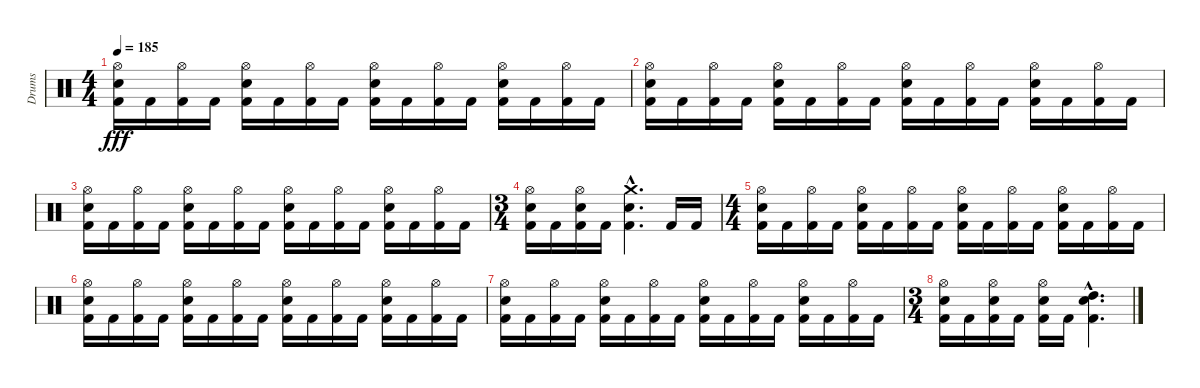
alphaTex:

\track ("Drums" "Drums") {instrument percussion}
\staff {score}
\articulation defaults
\ts (4 4)
\tempo 185
\clef neutral
\ks c
("Hi-Hat (open)" "Electric Snare (hit)" "Kick (hit) 2").16{dy fff} "Kick (hit) 2".16 ("Hi-Hat (open)" "Kick (hit) 2").16 "Kick (hit) 2".16 ("Hi-Hat (open)" "Electric Snare (hit)" "Kick (hit) 2").16 "Kick (hit) 2".16 ("Hi-Hat (open)" "Kick (hit) 2").16 "Kick (hit) 2".16 ("Hi-Hat (open)" "Electric Snare (hit)" "Kick (hit) 2").16 "Kick (hit) 2".16 ("Hi-Hat (open)" "Kick (hit) 2").16 "Kick (hit) 2".16 ("Hi-Hat (open)" "Electric Snare (hit)" "Kick (hit) 2").16 "Kick (hit) 2".16 ("Hi-Hat (open)" "Kick (hit) 2").16 "Kick (hit) 2".16 |
("Hi-Hat (open)" "Electric Snare (hit)" "Kick (hit) 2").16 "Kick (hit) 2".16 ("Hi-Hat (open)" "Kick (hit) 2").16 "Kick (hit) 2".16 ("Hi-Hat (open)" "Electric Snare (hit)" "Kick (hit) 2").16 "Kick (hit) 2".16 ("Hi-Hat (open)" "Kick (hit) 2").16 "Kick (hit) 2".16 ("Hi-Hat (open)" "Electric Snare (hit)" "Kick (hit) 2").16 "Kick (hit) 2".16 ("Hi-Hat (open)" "Kick (hit) 2").16 "Kick (hit) 2".16 ("Hi-Hat (open)" "Electric Snare (hit)" "Kick (hit) 2").16 "Kick (hit) 2".16 ("Hi-Hat (open)" "Kick (hit) 2").16 "Kick (hit) 2".16 |
("Hi-Hat (open)" "Electric Snare (hit)" "Kick (hit) 2").16 "Kick (hit) 2".16 ("Hi-Hat (open)" "Kick (hit) 2").16 "Kick (hit) 2".16 ("Hi-Hat (open)" "Electric Snare (hit)" "Kick (hit) 2").16 "Kick (hit) 2".16 ("Hi-Hat (open)" "Kick (hit) 2").16 "Kick (hit) 2".16 ("Hi-Hat (open)" "Electric Snare (hit)" "Kick (hit) 2").16 "Kick (hit) 2".16 ("Hi-Hat (open)" "Kick (hit) 2").16 "Kick (hit) 2".16 ("Hi-Hat (open)" "Electric Snare (hit)" "Kick (hit) 2").16 "Kick (hit) 2".16 ("Hi-Hat (open)" "Kick (hit) 2").16 "Kick (hit) 2".16 |
\ts (3 4)
("Electric Snare (hit)" "Hi-Hat (open)" "Kick (hit) 2").16 "Kick (hit) 2".16 ("Electric Snare (hit)" "Hi-Hat (open)" "Kick (hit) 2").16 "Kick (hit) 2".16 ("Electric Snare (hit)"{hac} "Crash medium (hit)"{hac} "Kick (hit) 2"{hac}).4{d} "Kick (hit) 2".16 "Kick (hit) 2".16 |
\ts (4 4)
("Hi-Hat (open)" "Electric Snare (hit)" "Kick (hit) 2").16 "Kick (hit) 2".16 ("Hi-Hat (open)" "Kick (hit) 2").16 "Kick (hit) 2".16 ("Hi-Hat (open)" "Electric Snare (hit)" "Kick (hit) 2").16 "Kick (hit) 2".16 ("Hi-Hat (open)" "Kick (hit) 2").16 "Kick (hit) 2".16 ("Hi-Hat (open)" "Electric Snare (hit)" "Kick (hit) 2").16 "Kick (hit) 2".16 ("Hi-Hat (open)" "Kick (hit) 2").16 "Kick (hit) 2".16 ("Hi-Hat (open)" "Electric Snare (hit)" "Kick (hit) 2").16 "Kick (hit) 2".16 ("Hi-Hat (open)" "Kick (hit) 2").16 "Kick (hit) 2".16 |
("Hi-Hat (open)" "Electric Snare (hit)" "Kick (hit) 2").16 "Kick (hit) 2".16 ("Hi-Hat (open)" "Kick (hit) 2").16 "Kick (hit) 2".16 ("Hi-Hat (open)" "Electric Snare (hit)" "Kick (hit) 2").16 "Kick (hit) 2".16 ("Hi-Hat (open)" "Kick (hit) 2").16 "Kick (hit) 2".16 ("Hi-Hat (open)" "Electric Snare (hit)" "Kick (hit) 2").16 "Kick (hit) 2".16 ("Hi-Hat (open)" "Kick (hit) 2").16 "Kick (hit) 2".16 ("Hi-Hat (open)" "Electric Snare (hit)" "Kick (hit) 2").16 "Kick (hit) 2".16 ("Hi-Hat (open)" "Kick (hit) 2").16 "Kick (hit) 2".16 |
("Hi-Hat (open)" "Electric Snare (hit)" "Kick (hit) 2").16 "Kick (hit) 2".16 ("Hi-Hat (open)" "Kick (hit) 2").16 "Kick (hit) 2".16 ("Hi-Hat (open)" "Electric Snare (hit)" "Kick (hit) 2").16 "Kick (hit) 2".16 ("Hi-Hat (open)" "Kick (hit) 2").16 "Kick (hit) 2".16 ("Hi-Hat (open)" "Electric Snare (hit)" "Kick (hit) 2").16 "Kick (hit) 2".16 ("Hi-Hat (open)" "Kick (hit) 2").16 "Kick (hit) 2".16 ("Hi-Hat (open)" "Electric Snare (hit)" "Kick (hit) 2").16 "Kick (hit) 2".16 ("Hi-Hat (open)" "Kick (hit) 2").16 "Kick (hit) 2".16 |
\ts (3 4)
("Electric Snare (hit)" "Hi-Hat (open)" "Kick (hit) 2").16 "Kick (hit) 2".16 ("Electric Snare (hit)" "Hi-Hat (open)" "Kick (hit) 2").16 "Kick (hit) 2".16 ("Electric Snare (hit)" "Hi-Hat (open)" "Kick (hit) 2").16 "Kick (hit) 2".16 ("High Tom (hit)"{hac} "Electric Snare (hit)"{hac} "Kick (hit) 2"{hac}).4{d}
